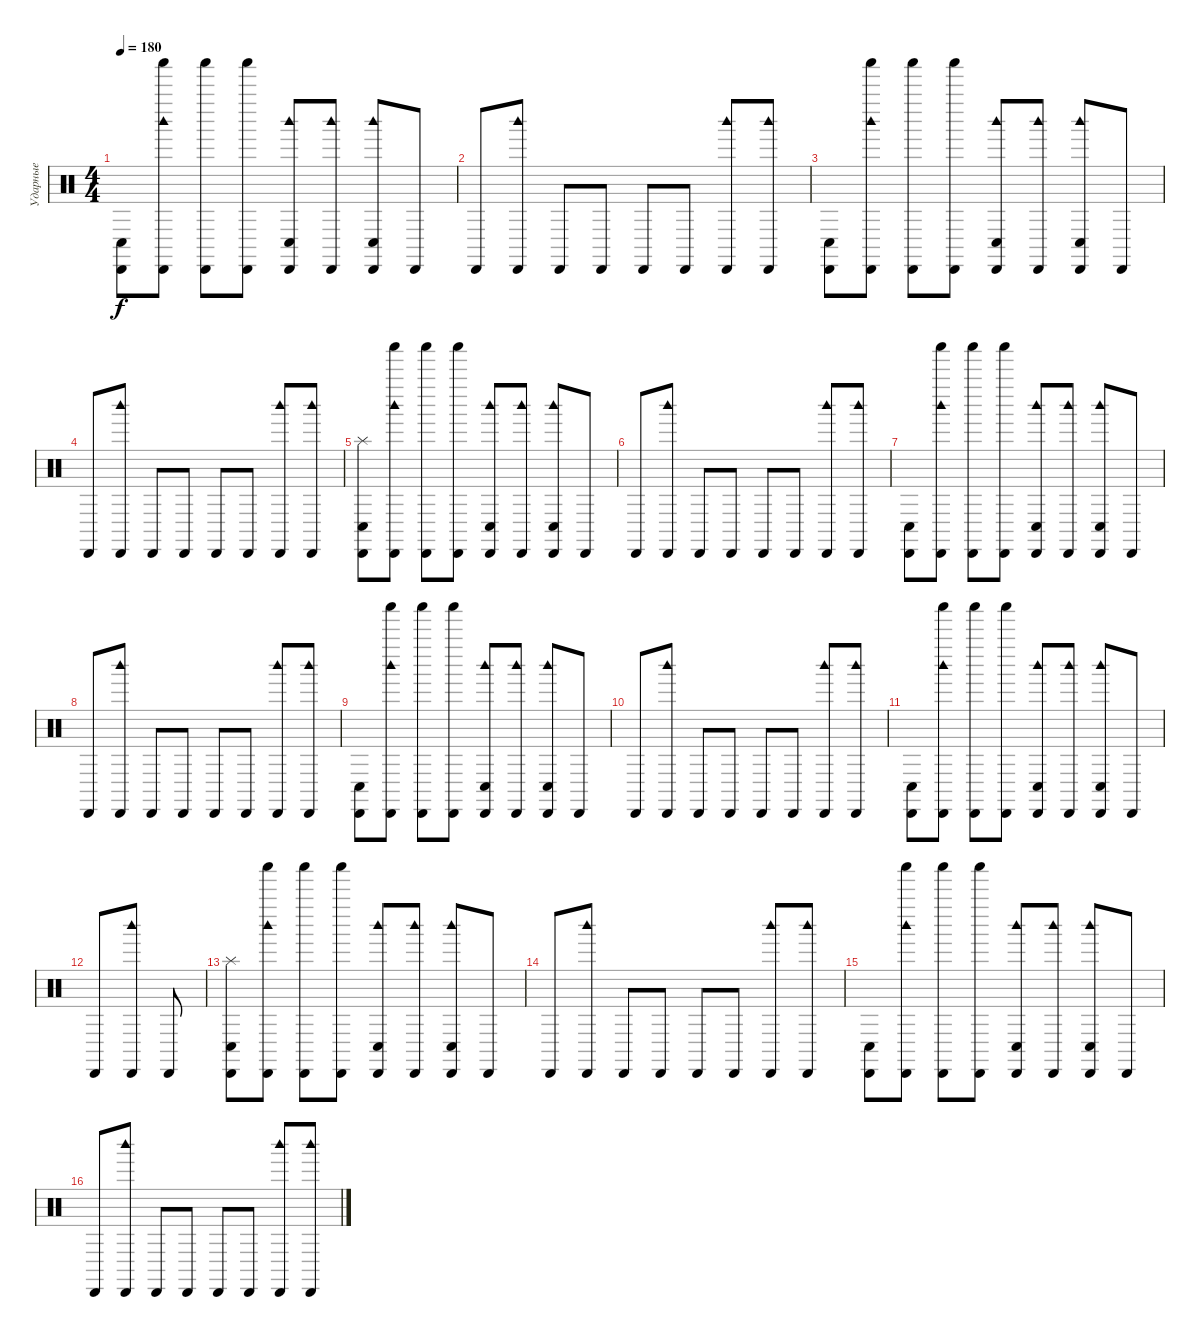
\track ("Ударные" "Ударные") {instrument percussion}
\staff {score}
\articulation defaults
\ts (4 4)
\tempo 180
\clef neutral
\ks c
("Cabasa (hit)" "Conga low (hit)").8{dy f} ("Woodblock high (hit)" "Shaker (hit)" "Cabasa (hit)").8 ("Shaker (hit)" "Cabasa (hit)").8 ("Shaker (hit)" "Cabasa (hit)").8 ("Woodblock high (hit)" "Cabasa (hit)" "Conga low (hit)").8 ("Woodblock high (hit)" "Cabasa (hit)").8 ("Woodblock high (hit)" "Cabasa (hit)" "Conga low (hit)").8 "Cabasa (hit)".8 |
"Cabasa (hit)".8 ("Woodblock high (hit)" "Cabasa (hit)").8 "Cabasa (hit)".8 "Cabasa (hit)".8 "Cabasa (hit)".8 "Cabasa (hit)".8 ("Woodblock high (hit)" "Cabasa (hit)").8 ("Woodblock high (hit)" "Cabasa (hit)").8 |
("Cabasa (hit)" "Conga low (hit)").8 ("Woodblock high (hit)" "Shaker (hit)" "Cabasa (hit)").8 ("Shaker (hit)" "Cabasa (hit)").8 ("Shaker (hit)" "Cabasa (hit)").8 ("Woodblock high (hit)" "Cabasa (hit)" "Conga low (hit)").8 ("Woodblock high (hit)" "Cabasa (hit)").8 ("Woodblock high (hit)" "Cabasa (hit)" "Conga low (hit)").8 "Cabasa (hit)".8 |
"Cabasa (hit)".8 ("Woodblock high (hit)" "Cabasa (hit)").8 "Cabasa (hit)".8 "Cabasa (hit)".8 "Cabasa (hit)".8 "Cabasa (hit)".8 ("Woodblock high (hit)" "Cabasa (hit)").8 ("Woodblock high (hit)" "Cabasa (hit)").8 |
("Cabasa (hit)" "Splash (hit)" "Conga low (hit)").8 ("Woodblock high (hit)" "Shaker (hit)" "Cabasa (hit)").8 ("Shaker (hit)" "Cabasa (hit)").8 ("Shaker (hit)" "Cabasa (hit)").8 ("Woodblock high (hit)" "Cabasa (hit)" "Conga low (hit)").8 ("Woodblock high (hit)" "Cabasa (hit)").8 ("Woodblock high (hit)" "Cabasa (hit)" "Conga low (hit)").8 "Cabasa (hit)".8 |
"Cabasa (hit)".8 ("Woodblock high (hit)" "Cabasa (hit)").8 "Cabasa (hit)".8 "Cabasa (hit)".8 "Cabasa (hit)".8 "Cabasa (hit)".8 ("Woodblock high (hit)" "Cabasa (hit)").8 ("Woodblock high (hit)" "Cabasa (hit)").8 |
("Cabasa (hit)" "Conga low (hit)").8 ("Woodblock high (hit)" "Shaker (hit)" "Cabasa (hit)").8 ("Shaker (hit)" "Cabasa (hit)").8 ("Shaker (hit)" "Cabasa (hit)").8 ("Woodblock high (hit)" "Cabasa (hit)" "Conga low (hit)").8 ("Woodblock high (hit)" "Cabasa (hit)").8 ("Woodblock high (hit)" "Cabasa (hit)" "Conga low (hit)").8 "Cabasa (hit)".8 |
"Cabasa (hit)".8 ("Woodblock high (hit)" "Cabasa (hit)").8 "Cabasa (hit)".8 "Cabasa (hit)".8 "Cabasa (hit)".8 "Cabasa (hit)".8 ("Woodblock high (hit)" "Cabasa (hit)").8 ("Woodblock high (hit)" "Cabasa (hit)").8 |
("Cabasa (hit)" "Conga low (hit)").8 ("Woodblock high (hit)" "Shaker (hit)" "Cabasa (hit)").8 ("Shaker (hit)" "Cabasa (hit)").8 ("Shaker (hit)" "Cabasa (hit)").8 ("Woodblock high (hit)" "Cabasa (hit)" "Conga low (hit)").8 ("Woodblock high (hit)" "Cabasa (hit)").8 ("Woodblock high (hit)" "Cabasa (hit)" "Conga low (hit)").8 "Cabasa (hit)".8 |
"Cabasa (hit)".8 ("Woodblock high (hit)" "Cabasa (hit)").8 "Cabasa (hit)".8 "Cabasa (hit)".8 "Cabasa (hit)".8 "Cabasa (hit)".8 ("Woodblock high (hit)" "Cabasa (hit)").8 ("Woodblock high (hit)" "Cabasa (hit)").8 |
("Cabasa (hit)" "Conga low (hit)").8 ("Woodblock high (hit)" "Shaker (hit)" "Cabasa (hit)").8 ("Shaker (hit)" "Cabasa (hit)").8 ("Shaker (hit)" "Cabasa (hit)").8 ("Woodblock high (hit)" "Cabasa (hit)" "Conga low (hit)").8 ("Woodblock high (hit)" "Cabasa (hit)").8 ("Woodblock high (hit)" "Cabasa (hit)" "Conga low (hit)").8 "Cabasa (hit)".8 |
"Cabasa (hit)".8 ("Woodblock high (hit)" "Cabasa (hit)").8 "Cabasa (hit)".8 |
("Cabasa (hit)" "Splash (hit)" "Conga low (hit)").8 ("Woodblock high (hit)" "Shaker (hit)" "Cabasa (hit)").8 ("Shaker (hit)" "Cabasa (hit)").8 ("Shaker (hit)" "Cabasa (hit)").8 ("Woodblock high (hit)" "Cabasa (hit)" "Conga low (hit)").8 ("Woodblock high (hit)" "Cabasa (hit)").8 ("Woodblock high (hit)" "Cabasa (hit)" "Conga low (hit)").8 "Cabasa (hit)".8 |
"Cabasa (hit)".8 ("Woodblock high (hit)" "Cabasa (hit)").8 "Cabasa (hit)".8 "Cabasa (hit)".8 "Cabasa (hit)".8 "Cabasa (hit)".8 ("Woodblock high (hit)" "Cabasa (hit)").8 ("Woodblock high (hit)" "Cabasa (hit)").8 |
("Cabasa (hit)" "Conga low (hit)").8 ("Woodblock high (hit)" "Shaker (hit)" "Cabasa (hit)").8 ("Shaker (hit)" "Cabasa (hit)").8 ("Shaker (hit)" "Cabasa (hit)").8 ("Woodblock high (hit)" "Cabasa (hit)" "Conga low (hit)").8 ("Woodblock high (hit)" "Cabasa (hit)").8 ("Woodblock high (hit)" "Cabasa (hit)" "Conga low (hit)").8 "Cabasa (hit)".8 |
"Cabasa (hit)".8 ("Woodblock high (hit)" "Cabasa (hit)").8 "Cabasa (hit)".8 "Cabasa (hit)".8 "Cabasa (hit)".8 "Cabasa (hit)".8 ("Woodblock high (hit)" "Cabasa (hit)").8 ("Woodblock high (hit)" "Cabasa (hit)").8
